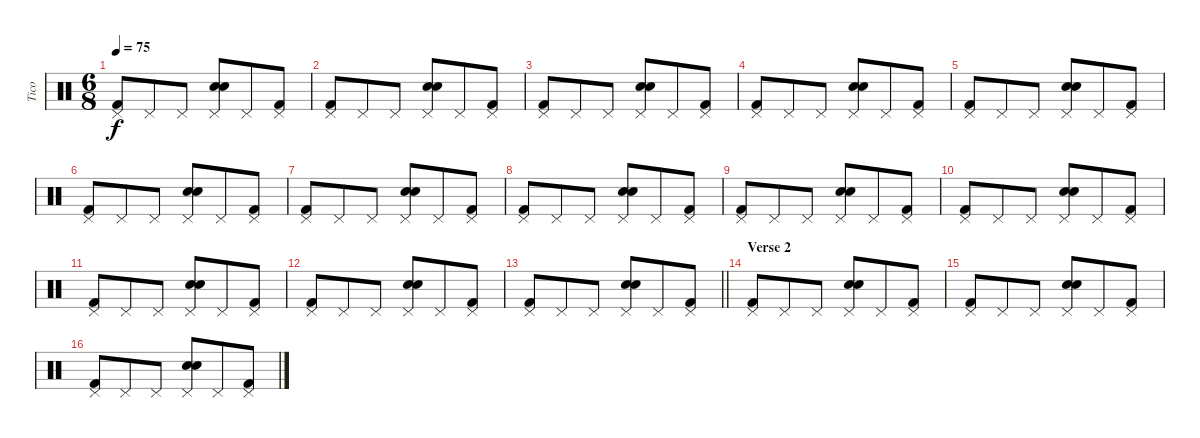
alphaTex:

\track ("Tico" "Tico") {instrument percussion}
\staff {score}
\articulation defaults
\ts (6 8)
\tempo 75
\clef neutral
\ks c
("Kick (hit) 2" "Pedal Hi-Hat (hit)").8{dy f} "Pedal Hi-Hat (hit)".8 "Pedal Hi-Hat (hit)".8 ("Electric Snare (hit)" "Snare (hit) 2" "Pedal Hi-Hat (hit)").8 "Pedal Hi-Hat (hit)".8 ("Kick (hit) 2" "Pedal Hi-Hat (hit)").8 |
("Kick (hit) 2" "Pedal Hi-Hat (hit)").8 "Pedal Hi-Hat (hit)".8 "Pedal Hi-Hat (hit)".8 ("Electric Snare (hit)" "Snare (hit) 2" "Pedal Hi-Hat (hit)").8 "Pedal Hi-Hat (hit)".8 ("Kick (hit) 2" "Pedal Hi-Hat (hit)").8 |
("Kick (hit) 2" "Pedal Hi-Hat (hit)").8 "Pedal Hi-Hat (hit)".8 "Pedal Hi-Hat (hit)".8 ("Electric Snare (hit)" "Snare (hit) 2" "Pedal Hi-Hat (hit)").8 "Pedal Hi-Hat (hit)".8 ("Kick (hit) 2" "Pedal Hi-Hat (hit)").8 |
("Kick (hit) 2" "Pedal Hi-Hat (hit)").8 "Pedal Hi-Hat (hit)".8 "Pedal Hi-Hat (hit)".8 ("Electric Snare (hit)" "Snare (hit) 2" "Pedal Hi-Hat (hit)").8 "Pedal Hi-Hat (hit)".8 ("Kick (hit) 2" "Pedal Hi-Hat (hit)").8 |
("Kick (hit) 2" "Pedal Hi-Hat (hit)").8 "Pedal Hi-Hat (hit)".8 "Pedal Hi-Hat (hit)".8 ("Electric Snare (hit)" "Snare (hit) 2" "Pedal Hi-Hat (hit)").8 "Pedal Hi-Hat (hit)".8 ("Kick (hit) 2" "Pedal Hi-Hat (hit)").8 |
("Kick (hit) 2" "Pedal Hi-Hat (hit)").8 "Pedal Hi-Hat (hit)".8 "Pedal Hi-Hat (hit)".8 ("Electric Snare (hit)" "Snare (hit) 2" "Pedal Hi-Hat (hit)").8 "Pedal Hi-Hat (hit)".8 ("Kick (hit) 2" "Pedal Hi-Hat (hit)").8 |
("Kick (hit) 2" "Pedal Hi-Hat (hit)").8 "Pedal Hi-Hat (hit)".8 "Pedal Hi-Hat (hit)".8 ("Electric Snare (hit)" "Snare (hit) 2" "Pedal Hi-Hat (hit)").8 "Pedal Hi-Hat (hit)".8 ("Kick (hit) 2" "Pedal Hi-Hat (hit)").8 |
("Kick (hit) 2" "Pedal Hi-Hat (hit)").8 "Pedal Hi-Hat (hit)".8 "Pedal Hi-Hat (hit)".8 ("Electric Snare (hit)" "Snare (hit) 2" "Pedal Hi-Hat (hit)").8 "Pedal Hi-Hat (hit)".8 ("Kick (hit) 2" "Pedal Hi-Hat (hit)").8 |
("Kick (hit) 2" "Pedal Hi-Hat (hit)").8 "Pedal Hi-Hat (hit)".8 "Pedal Hi-Hat (hit)".8 ("Electric Snare (hit)" "Snare (hit) 2" "Pedal Hi-Hat (hit)").8 "Pedal Hi-Hat (hit)".8 ("Kick (hit) 2" "Pedal Hi-Hat (hit)").8 |
("Kick (hit) 2" "Pedal Hi-Hat (hit)").8 "Pedal Hi-Hat (hit)".8 "Pedal Hi-Hat (hit)".8 ("Electric Snare (hit)" "Snare (hit) 2" "Pedal Hi-Hat (hit)").8 "Pedal Hi-Hat (hit)".8 ("Kick (hit) 2" "Pedal Hi-Hat (hit)").8 |
("Kick (hit) 2" "Pedal Hi-Hat (hit)").8 "Pedal Hi-Hat (hit)".8 "Pedal Hi-Hat (hit)".8 ("Electric Snare (hit)" "Snare (hit) 2" "Pedal Hi-Hat (hit)").8 "Pedal Hi-Hat (hit)".8 ("Kick (hit) 2" "Pedal Hi-Hat (hit)").8 |
("Kick (hit) 2" "Pedal Hi-Hat (hit)").8 "Pedal Hi-Hat (hit)".8 "Pedal Hi-Hat (hit)".8 ("Electric Snare (hit)" "Snare (hit) 2" "Pedal Hi-Hat (hit)").8 "Pedal Hi-Hat (hit)".8 ("Kick (hit) 2" "Pedal Hi-Hat (hit)").8 |
\barLineRight lightlight
("Kick (hit) 2" "Pedal Hi-Hat (hit)").8 "Pedal Hi-Hat (hit)".8 "Pedal Hi-Hat (hit)".8 ("Electric Snare (hit)" "Snare (hit) 2" "Pedal Hi-Hat (hit)").8 "Pedal Hi-Hat (hit)".8 ("Kick (hit) 2" "Pedal Hi-Hat (hit)").8 |
\section ("" "Verse 2")
("Kick (hit) 2" "Pedal Hi-Hat (hit)").8 "Pedal Hi-Hat (hit)".8 "Pedal Hi-Hat (hit)".8 ("Electric Snare (hit)" "Snare (hit) 2" "Pedal Hi-Hat (hit)").8 "Pedal Hi-Hat (hit)".8 ("Kick (hit) 2" "Pedal Hi-Hat (hit)").8 |
("Kick (hit) 2" "Pedal Hi-Hat (hit)").8 "Pedal Hi-Hat (hit)".8 "Pedal Hi-Hat (hit)".8 ("Electric Snare (hit)" "Snare (hit) 2" "Pedal Hi-Hat (hit)").8 "Pedal Hi-Hat (hit)".8 ("Kick (hit) 2" "Pedal Hi-Hat (hit)").8 |
("Kick (hit) 2" "Pedal Hi-Hat (hit)").8 "Pedal Hi-Hat (hit)".8 "Pedal Hi-Hat (hit)".8 ("Electric Snare (hit)" "Snare (hit) 2" "Pedal Hi-Hat (hit)").8 "Pedal Hi-Hat (hit)".8 ("Kick (hit) 2" "Pedal Hi-Hat (hit)").8
